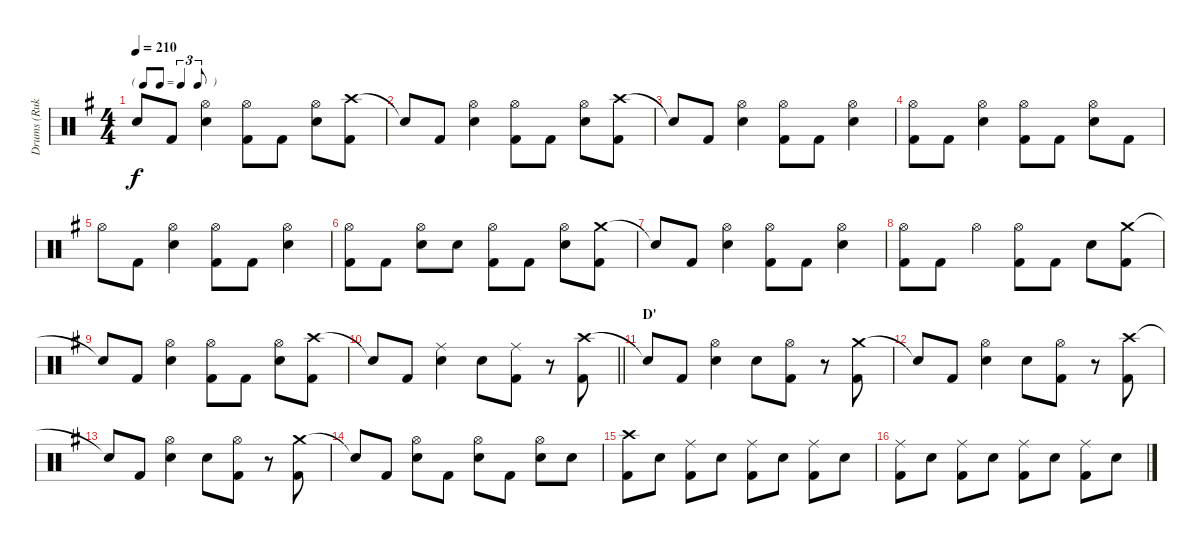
\track ("Drums (Ruka)" "Drums (Ruk") {instrument percussion}
\staff {score}
\articulation defaults
\ts (4 4)
\tf triplet8th
\tempo 210
\clef neutral
\ks g "Snare (hit)"{t}.8{dy f} "Kick (hit) 2".8
("Hi-Hat (open)" "Electric Snare (hit)").4 ("Hi-Hat (open)" "Kick (hit) 2").8 "Kick (hit) 2".8 ("Hi-Hat (open)" "Electric Snare (hit)").8 ("Crash high (hit)" "Kick (hit) 2").8 |
"Snare (hit)"{t}.8 "Kick (hit) 2".8 ("Hi-Hat (open)" "Electric Snare (hit)").4 ("Hi-Hat (open)" "Kick (hit) 2").8 "Kick (hit) 2".8 ("Hi-Hat (open)" "Electric Snare (hit)").8 ("Crash high (hit)" "Kick (hit) 2").8 |
"Snare (hit)"{t}.8 "Kick (hit) 2".8 ("Hi-Hat (open)" "Electric Snare (hit)").4 ("Hi-Hat (open)" "Kick (hit) 2").8 "Kick (hit) 2".8 ("Hi-Hat (open)" "Electric Snare (hit)").4 |
("Hi-Hat (open)" "Kick (hit) 2").8 "Kick (hit) 2".8 ("Hi-Hat (open)" "Electric Snare (hit)").4 ("Hi-Hat (open)" "Kick (hit) 2").8 "Kick (hit) 2".8 ("Hi-Hat (open)" "Electric Snare (hit)").8 "Kick (hit) 2".8 |
"Hi-Hat (open)".8 "Kick (hit) 2".8 ("Hi-Hat (open)" "Electric Snare (hit)").4 ("Hi-Hat (open)" "Kick (hit) 2").8 "Kick (hit) 2".8 ("Hi-Hat (open)" "Electric Snare (hit)").4 |
("Hi-Hat (open)" "Kick (hit) 2").8 "Kick (hit) 2".8 ("Hi-Hat (open)" "Electric Snare (hit)").8 "Electric Snare (hit)".8 ("Hi-Hat (open)" "Kick (hit) 2").8 "Kick (hit) 2".8 ("Hi-Hat (open)" "Electric Snare (hit)").8 ("Crash medium (hit)" "Kick (hit) 2").8 |
"Snare (hit)"{t}.8 "Kick (hit) 2".8 ("Hi-Hat (open)" "Electric Snare (hit)").4 ("Hi-Hat (open)" "Kick (hit) 2").8 "Kick (hit) 2".8 ("Hi-Hat (open)" "Electric Snare (hit)").4 |
("Hi-Hat (open)" "Kick (hit) 2").8 "Kick (hit) 2".8 "Hi-Hat (open)".4 ("Hi-Hat (open)" "Kick (hit) 2").8 "Kick (hit) 2".8 "Electric Snare (hit)".8 ("Crash medium (hit)" "Kick (hit) 2").8 |
"Snare (hit)"{t}.8 "Kick (hit) 2".8 ("Hi-Hat (open)" "Electric Snare (hit)").4 ("Hi-Hat (open)" "Kick (hit) 2").8 "Kick (hit) 2".8 ("Hi-Hat (open)" "Electric Snare (hit)").8 ("Crash high (hit)" "Kick (hit) 2").8 |
\barLineRight lightlight "Snare (hit)"{t}.8 "Kick (hit) 2".8
("Ride (middle)" "Electric Snare (hit)").4 "Electric Snare (hit)".8 ("Ride (middle)" "Kick (hit) 2").8 r.8 ("Crash high (hit)" "Kick (hit) 2").8 |
\section ("" "D'")
"Snare (hit)"{t}.8 "Kick (hit) 2".8 ("Hi-Hat (open)" "Electric Snare (hit)").4 "Electric Snare (hit)".8 ("Hi-Hat (open)" "Kick (hit) 2").8 r.8 ("Crash medium (hit)" "Kick (hit) 2").8 |
"Snare (hit)"{t}.8 "Kick (hit) 2".8 ("Hi-Hat (open)" "Electric Snare (hit)").4 "Electric Snare (hit)".8 ("Hi-Hat (open)" "Kick (hit) 2").8 r.8 ("Crash high (hit)" "Kick (hit) 2").8 |
"Snare (hit)"{t}.8 "Kick (hit) 2".8 ("Hi-Hat (open)" "Electric Snare (hit)").4 "Electric Snare (hit)".8 ("Hi-Hat (open)" "Kick (hit) 2").8 r.8 ("Crash medium (hit)" "Kick (hit) 2").8 |
"Snare (hit)"{t}.8 "Kick (hit) 2".8 ("Hi-Hat (open)" "Electric Snare (hit)").8 "Kick (hit) 2".8 ("Hi-Hat (open)" "Electric Snare (hit)").8 "Kick (hit) 2".8 ("Hi-Hat (open)" "Electric Snare (hit)").8 "Electric Snare (hit)".8 |
("Crash high (hit)" "Kick (hit) 2").8 "Electric Snare (hit)".8 ("Ride (middle)" "Kick (hit) 2").8 "Electric Snare (hit)".8 ("Ride (middle)" "Kick (hit) 2").8 "Electric Snare (hit)".8 ("Ride (middle)" "Kick (hit) 2").8 "Electric Snare (hit)".8 |
("Ride (middle)" "Kick (hit) 2").8 "Electric Snare (hit)".8 ("Ride (middle)" "Kick (hit) 2").8 "Electric Snare (hit)".8 ("Ride (middle)" "Kick (hit) 2").8 "Electric Snare (hit)".8 ("Ride (middle)" "Kick (hit) 2").8 "Electric Snare (hit)".8
